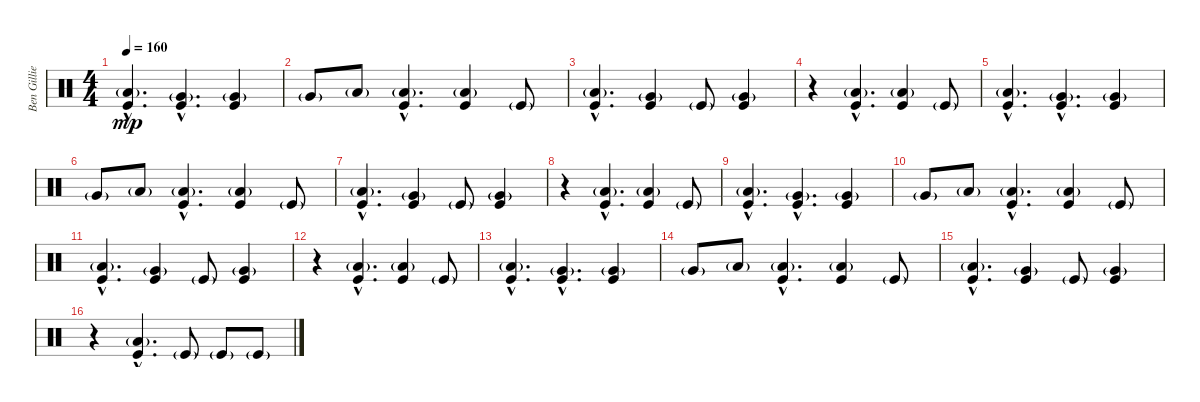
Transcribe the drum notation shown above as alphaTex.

\track ("Ben Gillies" "Ben Gillie") {instrument percussion}
\staff {score}
\articulation defaults
\ts (4 4)
\tempo 160
\clef neutral
\ks c
("Kick (hit)"{hac} "Low Floor Tom (hit)"{g hac}).4{d dy mp} ("Kick (hit)"{hac} "Very Low Tom (hit)"{g hac}).4{d} ("Kick (hit)" "Very Low Tom (hit)"{g}).4 |
"Very Low Tom (hit)"{g}.8 "Low Floor Tom (hit)"{g}.8 ("Kick (hit)"{hac} "Low Floor Tom (hit)"{g hac}).4{d} ("Kick (hit)" "Low Floor Tom (hit)"{g}).4 "Kick (hit)"{g}.8 |
("Kick (hit)"{hac} "Low Floor Tom (hit)"{g hac}).4{d} ("Kick (hit)" "Very Low Tom (hit)"{g}).4 "Kick (hit)"{g}.8 ("Kick (hit)" "Very Low Tom (hit)"{g}).4 |
r.4 ("Kick (hit)"{hac} "Low Floor Tom (hit)"{g hac}).4{d} ("Kick (hit)" "Low Floor Tom (hit)"{g}).4 "Kick (hit)"{g}.8 |
("Kick (hit)"{hac} "Low Floor Tom (hit)"{g hac}).4{d} ("Kick (hit)"{hac} "Very Low Tom (hit)"{g hac}).4{d} ("Kick (hit)" "Very Low Tom (hit)"{g}).4 |
"Very Low Tom (hit)"{g}.8 "Low Floor Tom (hit)"{g}.8 ("Kick (hit)"{hac} "Low Floor Tom (hit)"{g hac}).4{d} ("Kick (hit)" "Low Floor Tom (hit)"{g}).4 "Kick (hit)"{g}.8 |
("Kick (hit)"{hac} "Low Floor Tom (hit)"{g hac}).4{d} ("Kick (hit)" "Very Low Tom (hit)"{g}).4 "Kick (hit)"{g}.8 ("Kick (hit)" "Very Low Tom (hit)"{g}).4 |
r.4 ("Kick (hit)"{hac} "Low Floor Tom (hit)"{g hac}).4{d} ("Kick (hit)" "Low Floor Tom (hit)"{g}).4 "Kick (hit)"{g}.8 |
("Kick (hit)"{hac} "Low Floor Tom (hit)"{g hac}).4{d} ("Kick (hit)"{hac} "Very Low Tom (hit)"{g hac}).4{d} ("Kick (hit)" "Very Low Tom (hit)"{g}).4 |
"Very Low Tom (hit)"{g}.8 "Low Floor Tom (hit)"{g}.8 ("Kick (hit)"{hac} "Low Floor Tom (hit)"{g hac}).4{d} ("Kick (hit)" "Low Floor Tom (hit)"{g}).4 "Kick (hit)"{g}.8 |
("Kick (hit)"{hac} "Low Floor Tom (hit)"{g hac}).4{d} ("Kick (hit)" "Very Low Tom (hit)"{g}).4 "Kick (hit)"{g}.8 ("Kick (hit)" "Very Low Tom (hit)"{g}).4 |
r.4 ("Kick (hit)"{hac} "Low Floor Tom (hit)"{g hac}).4{d} ("Kick (hit)" "Low Floor Tom (hit)"{g}).4 "Kick (hit)"{g}.8 |
("Kick (hit)"{hac} "Low Floor Tom (hit)"{g hac}).4{d} ("Kick (hit)"{hac} "Very Low Tom (hit)"{g hac}).4{d} ("Kick (hit)" "Very Low Tom (hit)"{g}).4 |
"Very Low Tom (hit)"{g}.8 "Low Floor Tom (hit)"{g}.8 ("Kick (hit)"{hac} "Low Floor Tom (hit)"{g hac}).4{d} ("Kick (hit)" "Low Floor Tom (hit)"{g}).4 "Kick (hit)"{g}.8 |
("Kick (hit)"{hac} "Low Floor Tom (hit)"{g hac}).4{d} ("Kick (hit)" "Very Low Tom (hit)"{g}).4 "Kick (hit)"{g}.8 ("Kick (hit)" "Very Low Tom (hit)"{g}).4 |
r.4 ("Kick (hit)"{hac} "Low Floor Tom (hit)"{g hac}).4{d} "Kick (hit)"{g}.8 "Kick (hit)"{g}.8 "Kick (hit)"{g}.8
